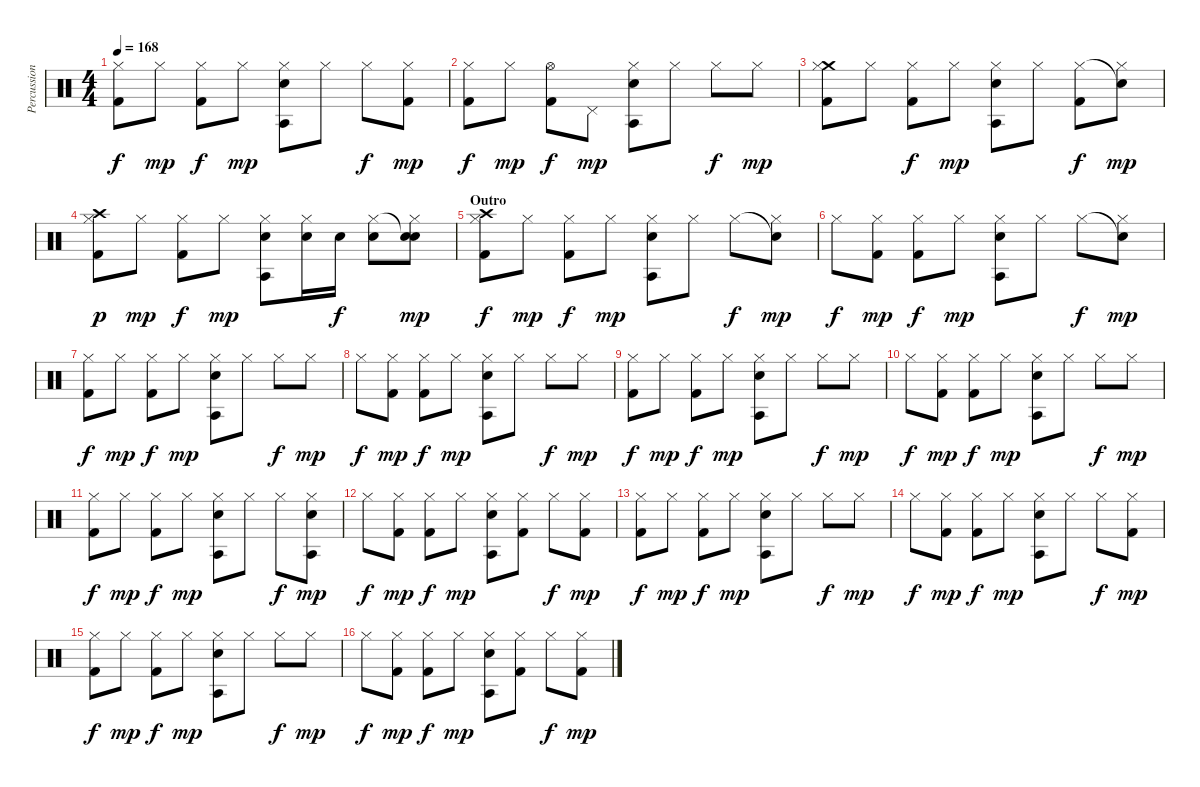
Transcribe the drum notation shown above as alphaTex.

\track ("Percussion" "Percussion") {instrument percussion}
\staff {score}
\articulation defaults
\ts (4 4)
\tempo 168
\clef neutral
\ks c
("Hi-Hat (closed)" "Kick (hit) 2").8{dy f} "Hi-Hat (closed)".8{dy mp} ("Hi-Hat (closed)" "Kick (hit) 2").8{dy f} "Hi-Hat (closed)".8{dy mp} ("Hi-Hat (closed)" "Agogo tow (hit)" "Electric Snare (hit)").8 "Hi-Hat (closed)".8 "Hi-Hat (closed)".8{dy f} ("Hi-Hat (closed)" "Kick (hit) 2").8{dy mp} |
("Hi-Hat (closed)" "Kick (hit) 2").8{dy f} "Hi-Hat (closed)".8{dy mp} ("Hi-Hat (open)" "Kick (hit) 2").8{dy f} "Pedal Hi-Hat (hit)".8{dy mp} ("Hi-Hat (closed)" "Agogo tow (hit)" "Electric Snare (hit)").8 "Hi-Hat (closed)".8 "Hi-Hat (closed)".8{dy f} "Hi-Hat (closed)".8{dy mp} |
("Crash medium (hit)" "Hi-Hat (closed)" "Kick (hit) 2").8 "Hi-Hat (closed)".8 ("Hi-Hat (closed)" "Kick (hit) 2").8{dy f} "Hi-Hat (closed)".8{dy mp} ("Hi-Hat (closed)" "Agogo tow (hit)" "Electric Snare (hit)").8 "Hi-Hat (closed)".8 ("Hi-Hat (closed)" "Kick (hit) 2").8{dy f} ("Snare (hit)"{t} "Hi-Hat (closed)").8{dy mp} |
("Crash high (hit)" "Hi-Hat (closed)" "Kick (hit) 2").8{dy p} "Hi-Hat (closed)".8{dy mp} ("Hi-Hat (closed)" "Kick (hit) 2").8{dy f} "Hi-Hat (closed)".8{dy mp} ("Hi-Hat (closed)" "Agogo tow (hit)" "Electric Snare (hit)").8 ("Hi-Hat (closed)" "Electric Snare (hit)").16 "Electric Snare (hit)".16{dy f} ("Hi-Hat (closed)" "Electric Snare (hit)").8 ("Snare (hit)"{t} "Hi-Hat (closed)" "Electric Snare (hit)").8{dy mp} |
\section ("" "Outro")
("Crash high (hit)" "Hi-Hat (closed)" "Kick (hit) 2").8{dy f} "Hi-Hat (closed)".8{dy mp} ("Hi-Hat (closed)" "Kick (hit) 2").8{dy f} "Hi-Hat (closed)".8{dy mp} ("Hi-Hat (closed)" "Agogo tow (hit)" "Electric Snare (hit)").8 "Hi-Hat (closed)".8 "Hi-Hat (closed)".8{dy f} ("Snare (hit)"{t} "Hi-Hat (closed)").8{dy mp} |
"Hi-Hat (closed)".8{dy f} ("Hi-Hat (closed)" "Kick (hit) 2").8{dy mp} ("Hi-Hat (closed)" "Kick (hit) 2").8{dy f} "Hi-Hat (closed)".8{dy mp} ("Hi-Hat (closed)" "Agogo tow (hit)" "Electric Snare (hit)").8 "Hi-Hat (closed)".8 "Hi-Hat (closed)".8{dy f} ("Snare (hit)"{t} "Hi-Hat (closed)").8{dy mp} |
("Hi-Hat (closed)" "Kick (hit) 2").8{dy f} "Hi-Hat (closed)".8{dy mp} ("Hi-Hat (closed)" "Kick (hit) 2").8{dy f} "Hi-Hat (closed)".8{dy mp} ("Hi-Hat (closed)" "Agogo tow (hit)" "Electric Snare (hit)").8 "Hi-Hat (closed)".8 "Hi-Hat (closed)".8{dy f} "Hi-Hat (closed)".8{dy mp} |
"Hi-Hat (closed)".8{dy f} ("Hi-Hat (closed)" "Kick (hit) 2").8{dy mp} ("Hi-Hat (closed)" "Kick (hit) 2").8{dy f} "Hi-Hat (closed)".8{dy mp} ("Hi-Hat (closed)" "Agogo tow (hit)" "Electric Snare (hit)").8 "Hi-Hat (closed)".8 "Hi-Hat (closed)".8{dy f} "Hi-Hat (closed)".8{dy mp} |
("Hi-Hat (closed)" "Kick (hit) 2").8{dy f} "Hi-Hat (closed)".8{dy mp} ("Hi-Hat (closed)" "Kick (hit) 2").8{dy f} "Hi-Hat (closed)".8{dy mp} ("Hi-Hat (closed)" "Agogo tow (hit)" "Electric Snare (hit)").8 "Hi-Hat (closed)".8 "Hi-Hat (closed)".8{dy f} "Hi-Hat (closed)".8{dy mp} |
"Hi-Hat (closed)".8{dy f} ("Hi-Hat (closed)" "Kick (hit) 2").8{dy mp} ("Hi-Hat (closed)" "Kick (hit) 2").8{dy f} "Hi-Hat (closed)".8{dy mp} ("Hi-Hat (closed)" "Agogo tow (hit)" "Electric Snare (hit)").8 "Hi-Hat (closed)".8 "Hi-Hat (closed)".8{dy f} "Hi-Hat (closed)".8{dy mp} |
("Hi-Hat (closed)" "Kick (hit) 2").8{dy f} "Hi-Hat (closed)".8{dy mp} ("Hi-Hat (closed)" "Kick (hit) 2").8{dy f} "Hi-Hat (closed)".8{dy mp} ("Hi-Hat (closed)" "Agogo tow (hit)" "Electric Snare (hit)").8 "Hi-Hat (closed)".8 "Hi-Hat (closed)".8{dy f} ("Hi-Hat (closed)" "Agogo tow (hit)" "Electric Snare (hit)").8{dy mp} |
"Hi-Hat (closed)".8{dy f} ("Hi-Hat (closed)" "Kick (hit) 2").8{dy mp} ("Hi-Hat (closed)" "Kick (hit) 2").8{dy f} "Hi-Hat (closed)".8{dy mp} ("Hi-Hat (closed)" "Agogo tow (hit)" "Electric Snare (hit)").8 ("Hi-Hat (closed)" "Kick (hit) 2").8 "Hi-Hat (closed)".8{dy f} ("Hi-Hat (closed)" "Kick (hit) 2").8{dy mp} |
("Hi-Hat (closed)" "Kick (hit) 2").8{dy f} "Hi-Hat (closed)".8{dy mp} ("Hi-Hat (closed)" "Kick (hit) 2").8{dy f} "Hi-Hat (closed)".8{dy mp} ("Hi-Hat (closed)" "Agogo tow (hit)" "Electric Snare (hit)").8 "Hi-Hat (closed)".8 "Hi-Hat (closed)".8{dy f} "Hi-Hat (closed)".8{dy mp} |
"Hi-Hat (closed)".8{dy f} ("Hi-Hat (closed)" "Kick (hit) 2").8{dy mp} ("Hi-Hat (closed)" "Kick (hit) 2").8{dy f} "Hi-Hat (closed)".8{dy mp} ("Hi-Hat (closed)" "Agogo tow (hit)" "Electric Snare (hit)").8 "Hi-Hat (closed)".8 "Hi-Hat (closed)".8{dy f} ("Hi-Hat (closed)" "Kick (hit) 2").8{dy mp} |
("Hi-Hat (closed)" "Kick (hit) 2").8{dy f} "Hi-Hat (closed)".8{dy mp} ("Hi-Hat (closed)" "Kick (hit) 2").8{dy f} "Hi-Hat (closed)".8{dy mp} ("Hi-Hat (closed)" "Agogo tow (hit)" "Electric Snare (hit)").8 "Hi-Hat (closed)".8 "Hi-Hat (closed)".8{dy f} "Hi-Hat (closed)".8{dy mp} |
"Hi-Hat (closed)".8{dy f} ("Hi-Hat (closed)" "Kick (hit) 2").8{dy mp} ("Hi-Hat (closed)" "Kick (hit) 2").8{dy f} "Hi-Hat (closed)".8{dy mp} ("Hi-Hat (closed)" "Agogo tow (hit)" "Electric Snare (hit)").8 ("Hi-Hat (closed)" "Kick (hit) 2").8 "Hi-Hat (closed)".8{dy f} ("Hi-Hat (closed)" "Kick (hit) 2").8{dy mp}
